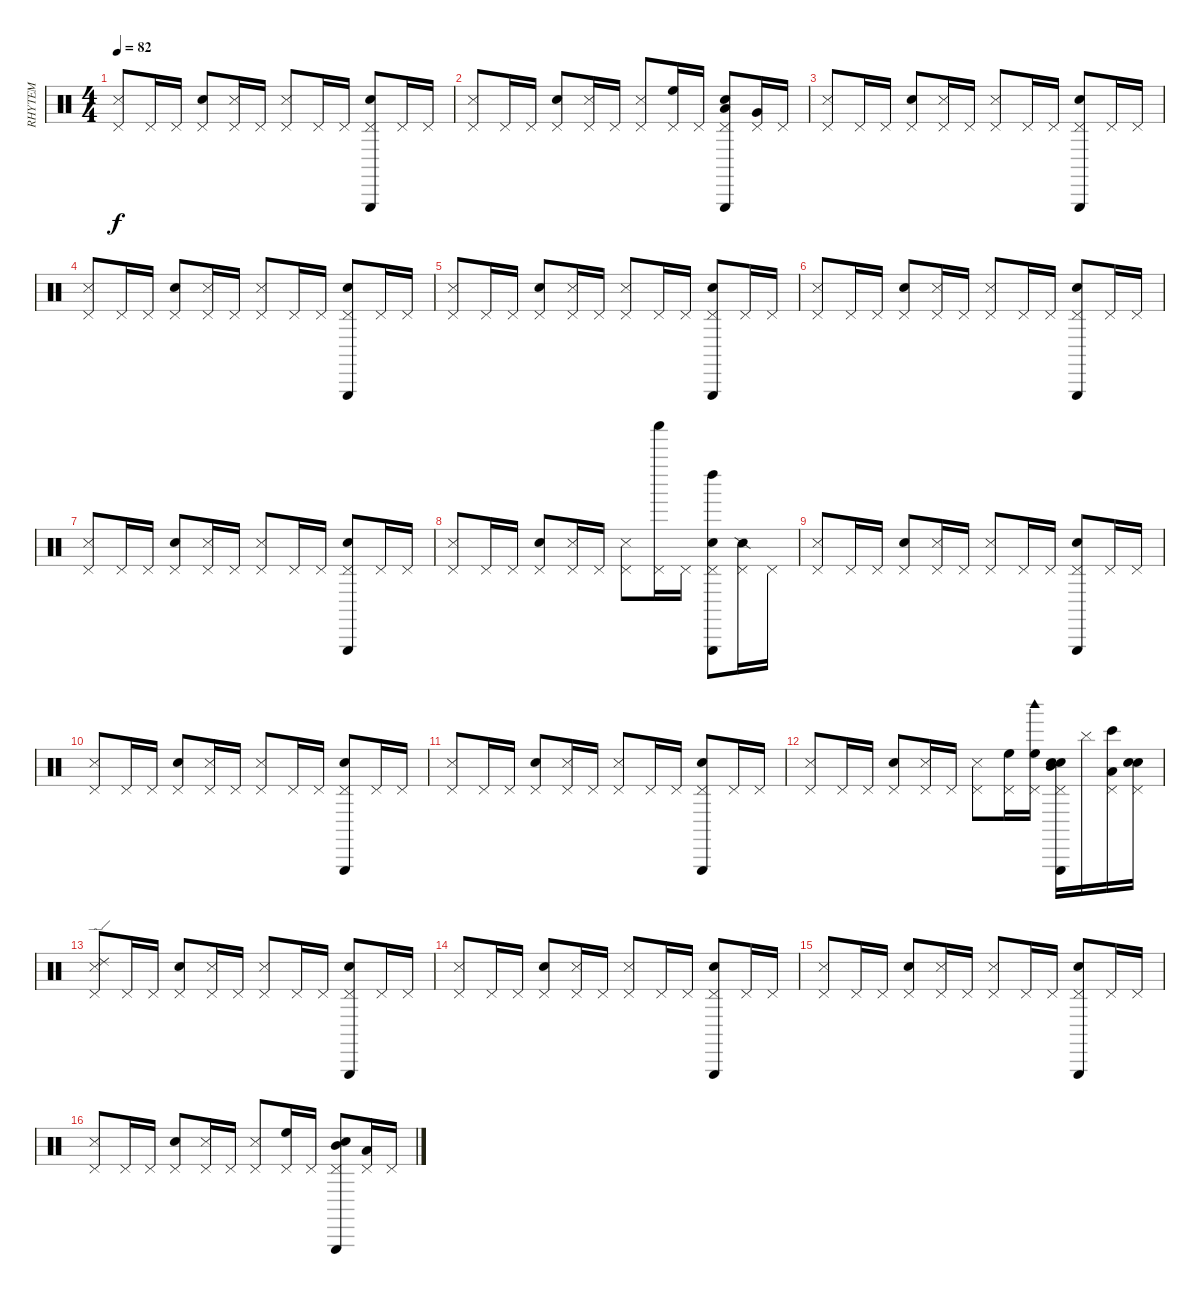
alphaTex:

\track ("RHYTEM" "RHYTEM") {instrument percussion}
\staff {score}
\articulation defaults
\ts (4 4)
\tempo 82
\clef neutral
\ks c
("Pedal Hi-Hat (hit)" "Metronome (hit)").8{dy f} "Pedal Hi-Hat (hit)".16 "Pedal Hi-Hat (hit)".16 ("Electric Snare (hit)" "Pedal Hi-Hat (hit)").8 ("Pedal Hi-Hat (hit)" "Metronome (hit)").16 "Pedal Hi-Hat (hit)".16 ("Pedal Hi-Hat (hit)" "Metronome (hit)").8 "Pedal Hi-Hat (hit)".16 "Pedal Hi-Hat (hit)".16 ("Triangle (hit)" "Electric Snare (hit)" "Pedal Hi-Hat (hit)").8 "Pedal Hi-Hat (hit)".16 "Pedal Hi-Hat (hit)".16 |
("Pedal Hi-Hat (hit)" "Metronome (hit)").8 "Pedal Hi-Hat (hit)".16 "Pedal Hi-Hat (hit)".16 ("Electric Snare (hit)" "Pedal Hi-Hat (hit)").8 ("Pedal Hi-Hat (hit)" "Metronome (hit)").16 "Pedal Hi-Hat (hit)".16 ("Pedal Hi-Hat (hit)" "Metronome (hit)").8 ("High Floor Tom (hit)" "Pedal Hi-Hat (hit)").16 "Pedal Hi-Hat (hit)".16 ("Low Tom (hit)" "Triangle (hit)" "Electric Snare (hit)" "Pedal Hi-Hat (hit)").8 ("Very Low Tom (hit)" "Pedal Hi-Hat (hit)").16 "Pedal Hi-Hat (hit)".16 |
("Pedal Hi-Hat (hit)" "Metronome (hit)").8 "Pedal Hi-Hat (hit)".16 "Pedal Hi-Hat (hit)".16 ("Electric Snare (hit)" "Pedal Hi-Hat (hit)").8 ("Pedal Hi-Hat (hit)" "Metronome (hit)").16 "Pedal Hi-Hat (hit)".16 ("Pedal Hi-Hat (hit)" "Metronome (hit)").8 "Pedal Hi-Hat (hit)".16 "Pedal Hi-Hat (hit)".16 ("Triangle (hit)" "Electric Snare (hit)" "Pedal Hi-Hat (hit)").8 "Pedal Hi-Hat (hit)".16 "Pedal Hi-Hat (hit)".16 |
("Pedal Hi-Hat (hit)" "Metronome (hit)").8 "Pedal Hi-Hat (hit)".16 "Pedal Hi-Hat (hit)".16 ("Electric Snare (hit)" "Pedal Hi-Hat (hit)").8 ("Pedal Hi-Hat (hit)" "Metronome (hit)").16 "Pedal Hi-Hat (hit)".16 ("Pedal Hi-Hat (hit)" "Metronome (hit)").8 "Pedal Hi-Hat (hit)".16 "Pedal Hi-Hat (hit)".16 ("Triangle (hit)" "Electric Snare (hit)" "Pedal Hi-Hat (hit)").8 "Pedal Hi-Hat (hit)".16 "Pedal Hi-Hat (hit)".16 |
("Pedal Hi-Hat (hit)" "Metronome (hit)").8 "Pedal Hi-Hat (hit)".16 "Pedal Hi-Hat (hit)".16 ("Electric Snare (hit)" "Pedal Hi-Hat (hit)").8 ("Pedal Hi-Hat (hit)" "Metronome (hit)").16 "Pedal Hi-Hat (hit)".16 ("Pedal Hi-Hat (hit)" "Metronome (hit)").8 "Pedal Hi-Hat (hit)".16 "Pedal Hi-Hat (hit)".16 ("Triangle (hit)" "Electric Snare (hit)" "Pedal Hi-Hat (hit)").8 "Pedal Hi-Hat (hit)".16 "Pedal Hi-Hat (hit)".16 |
("Pedal Hi-Hat (hit)" "Metronome (hit)").8 "Pedal Hi-Hat (hit)".16 "Pedal Hi-Hat (hit)".16 ("Electric Snare (hit)" "Pedal Hi-Hat (hit)").8 ("Pedal Hi-Hat (hit)" "Metronome (hit)").16 "Pedal Hi-Hat (hit)".16 ("Pedal Hi-Hat (hit)" "Metronome (hit)").8 "Pedal Hi-Hat (hit)".16 "Pedal Hi-Hat (hit)".16 ("Triangle (hit)" "Electric Snare (hit)" "Pedal Hi-Hat (hit)").8 "Pedal Hi-Hat (hit)".16 "Pedal Hi-Hat (hit)".16 |
("Pedal Hi-Hat (hit)" "Metronome (hit)").8 "Pedal Hi-Hat (hit)".16 "Pedal Hi-Hat (hit)".16 ("Electric Snare (hit)" "Pedal Hi-Hat (hit)").8 ("Pedal Hi-Hat (hit)" "Metronome (hit)").16 "Pedal Hi-Hat (hit)".16 ("Pedal Hi-Hat (hit)" "Metronome (hit)").8 "Pedal Hi-Hat (hit)".16 "Pedal Hi-Hat (hit)".16 ("Triangle (hit)" "Electric Snare (hit)" "Pedal Hi-Hat (hit)").8 "Pedal Hi-Hat (hit)".16 "Pedal Hi-Hat (hit)".16 |
("Pedal Hi-Hat (hit)" "Metronome (hit)").8 "Pedal Hi-Hat (hit)".16 "Pedal Hi-Hat (hit)".16 ("Electric Snare (hit)" "Pedal Hi-Hat (hit)").8 ("Pedal Hi-Hat (hit)" "Metronome (hit)").16 "Pedal Hi-Hat (hit)".16 ("Pedal Hi-Hat (hit)" "Metronome (hit)").8 ("Shaker (hit)" "Pedal Hi-Hat (hit)").16 "Pedal Hi-Hat (hit)".16 ("Left Maraca (hit)" "Triangle (hit)" "Electric Snare (hit)" "Pedal Hi-Hat (hit)").8 ("Snare (side stick) 2" "Pedal Hi-Hat (hit)").16 "Pedal Hi-Hat (hit)".16 |
("Pedal Hi-Hat (hit)" "Metronome (hit)").8 "Pedal Hi-Hat (hit)".16 "Pedal Hi-Hat (hit)".16 ("Electric Snare (hit)" "Pedal Hi-Hat (hit)").8 ("Pedal Hi-Hat (hit)" "Metronome (hit)").16 "Pedal Hi-Hat (hit)".16 ("Pedal Hi-Hat (hit)" "Metronome (hit)").8 "Pedal Hi-Hat (hit)".16 "Pedal Hi-Hat (hit)".16 ("Triangle (hit)" "Electric Snare (hit)" "Pedal Hi-Hat (hit)").8 "Pedal Hi-Hat (hit)".16 "Pedal Hi-Hat (hit)".16 |
("Pedal Hi-Hat (hit)" "Metronome (hit)").8 "Pedal Hi-Hat (hit)".16 "Pedal Hi-Hat (hit)".16 ("Electric Snare (hit)" "Pedal Hi-Hat (hit)").8 ("Pedal Hi-Hat (hit)" "Metronome (hit)").16 "Pedal Hi-Hat (hit)".16 ("Pedal Hi-Hat (hit)" "Metronome (hit)").8 "Pedal Hi-Hat (hit)".16 "Pedal Hi-Hat (hit)".16 ("Triangle (hit)" "Electric Snare (hit)" "Pedal Hi-Hat (hit)").8 "Pedal Hi-Hat (hit)".16 "Pedal Hi-Hat (hit)".16 |
("Pedal Hi-Hat (hit)" "Metronome (hit)").8 "Pedal Hi-Hat (hit)".16 "Pedal Hi-Hat (hit)".16 ("Electric Snare (hit)" "Pedal Hi-Hat (hit)").8 ("Pedal Hi-Hat (hit)" "Metronome (hit)").16 "Pedal Hi-Hat (hit)".16 ("Pedal Hi-Hat (hit)" "Metronome (hit)").8 "Pedal Hi-Hat (hit)".16 "Pedal Hi-Hat (hit)".16 ("Triangle (hit)" "Electric Snare (hit)" "Pedal Hi-Hat (hit)").8 "Pedal Hi-Hat (hit)".16 "Pedal Hi-Hat (hit)".16 |
("Pedal Hi-Hat (hit)" "Metronome (hit)").8 "Pedal Hi-Hat (hit)".16 "Pedal Hi-Hat (hit)".16 ("Electric Snare (hit)" "Pedal Hi-Hat (hit)").8 ("Pedal Hi-Hat (hit)" "Metronome (hit)").16 "Pedal Hi-Hat (hit)".16 ("Pedal Hi-Hat (hit)" "Metronome (hit)").8 ("High Floor Tom (hit)" "Pedal Hi-Hat (hit)").16 ("Woodblock high (hit)" "High Floor Tom (hit)" "Pedal Hi-Hat (hit)").16 ("Snare (hit)" "Mid Tom (hit)" "Triangle (hit)" "Electric Snare (hit)" "Pedal Hi-Hat (hit)").16 "Cymbal (hit)".16 ("Bongo High (hit)" "Low Tom (hit)" "Pedal Hi-Hat (hit)").16 ("Snare (hit)" "Snare (hit)" "Pedal Hi-Hat (hit)").16 |
("Ride (edge) 2" "Pedal Hi-Hat (hit)" "Metronome (hit)").8 "Pedal Hi-Hat (hit)".16 "Pedal Hi-Hat (hit)".16 ("Electric Snare (hit)" "Pedal Hi-Hat (hit)").8 ("Pedal Hi-Hat (hit)" "Metronome (hit)").16 "Pedal Hi-Hat (hit)".16 ("Pedal Hi-Hat (hit)" "Metronome (hit)").8 "Pedal Hi-Hat (hit)".16 "Pedal Hi-Hat (hit)".16 ("Triangle (hit)" "Electric Snare (hit)" "Pedal Hi-Hat (hit)").8 "Pedal Hi-Hat (hit)".16 "Pedal Hi-Hat (hit)".16 |
("Pedal Hi-Hat (hit)" "Metronome (hit)").8 "Pedal Hi-Hat (hit)".16 "Pedal Hi-Hat (hit)".16 ("Electric Snare (hit)" "Pedal Hi-Hat (hit)").8 ("Pedal Hi-Hat (hit)" "Metronome (hit)").16 "Pedal Hi-Hat (hit)".16 ("Pedal Hi-Hat (hit)" "Metronome (hit)").8 "Pedal Hi-Hat (hit)".16 "Pedal Hi-Hat (hit)".16 ("Triangle (hit)" "Electric Snare (hit)" "Pedal Hi-Hat (hit)").8 "Pedal Hi-Hat (hit)".16 "Pedal Hi-Hat (hit)".16 |
("Pedal Hi-Hat (hit)" "Metronome (hit)").8 "Pedal Hi-Hat (hit)".16 "Pedal Hi-Hat (hit)".16 ("Electric Snare (hit)" "Pedal Hi-Hat (hit)").8 ("Pedal Hi-Hat (hit)" "Metronome (hit)").16 "Pedal Hi-Hat (hit)".16 ("Pedal Hi-Hat (hit)" "Metronome (hit)").8 "Pedal Hi-Hat (hit)".16 "Pedal Hi-Hat (hit)".16 ("Triangle (hit)" "Electric Snare (hit)" "Pedal Hi-Hat (hit)").8 "Pedal Hi-Hat (hit)".16 "Pedal Hi-Hat (hit)".16 |
("Pedal Hi-Hat (hit)" "Metronome (hit)").8 "Pedal Hi-Hat (hit)".16 "Pedal Hi-Hat (hit)".16 ("Electric Snare (hit)" "Pedal Hi-Hat (hit)").8 ("Pedal Hi-Hat (hit)" "Metronome (hit)").16 "Pedal Hi-Hat (hit)".16 ("Pedal Hi-Hat (hit)" "Metronome (hit)").8 ("High Floor Tom (hit)" "Pedal Hi-Hat (hit)").16 "Pedal Hi-Hat (hit)".16 ("Mid Tom (hit)" "Triangle (hit)" "Electric Snare (hit)" "Pedal Hi-Hat (hit)").8 ("Low Tom (hit)" "Pedal Hi-Hat (hit)").16 "Pedal Hi-Hat (hit)".16
